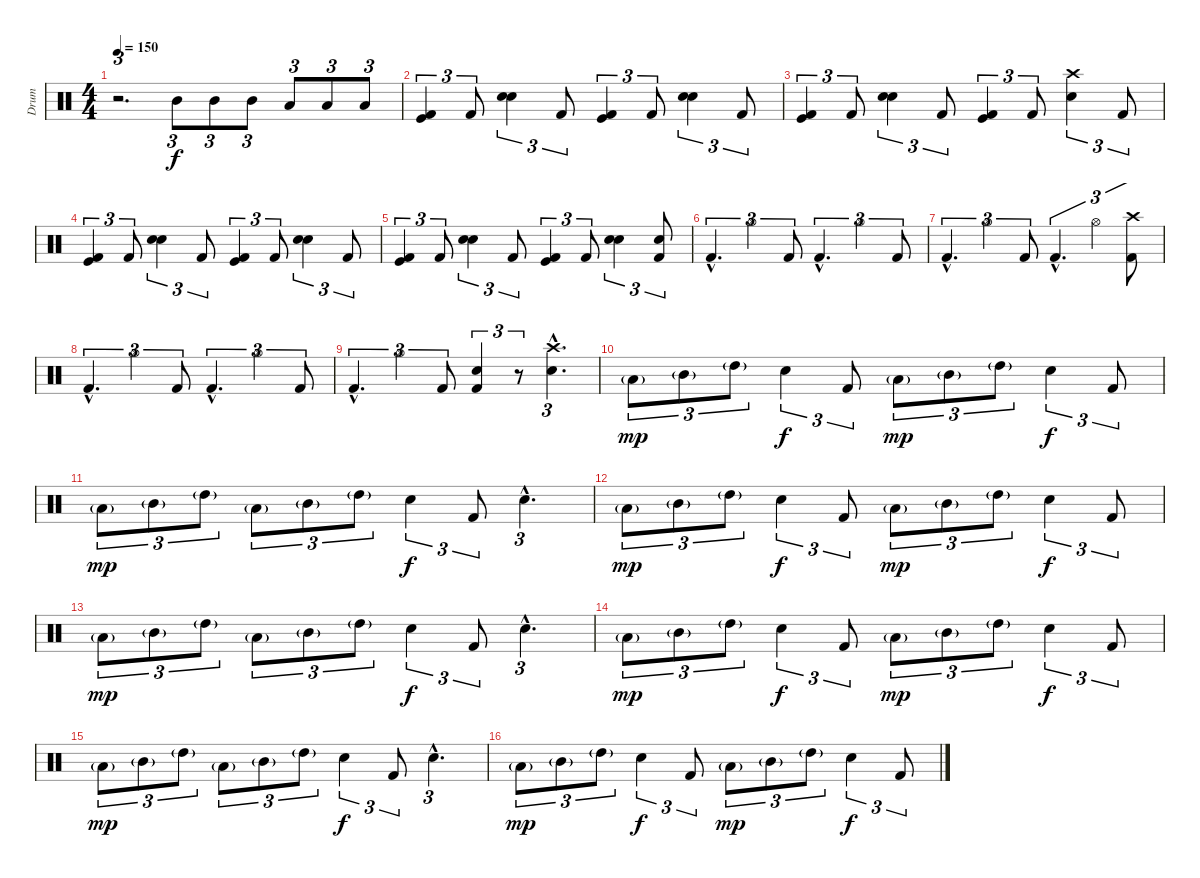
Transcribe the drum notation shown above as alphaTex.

\track ("Drum" "Drum") {instrument percussion}
\staff {score}
\articulation defaults
\ts (4 4)
\tempo 150
\clef neutral
\ks c
r.2{d tu (3 2) dy f} "Mid Tom (hit)".8{tu (3 2)} "Mid Tom (hit)".8{tu (3 2)} "Mid Tom (hit)".8{tu (3 2)} "Low Tom (hit)".8{tu (3 2)} "Low Tom (hit)".8{tu (3 2)} "Low Tom (hit)".8{tu (3 2)} |
("Kick (hit) 2" "Kick (hit)").4{tu (3 2)} "Kick (hit) 2".8{tu (3 2)} ("Electric Snare (hit)" "Snare (hit) 2").4{tu (3 2)} "Kick (hit) 2".8{tu (3 2)} ("Kick (hit) 2" "Kick (hit)").4{tu (3 2)} "Kick (hit) 2".8{tu (3 2)} ("Electric Snare (hit)" "Snare (hit) 2").4{tu (3 2)} "Kick (hit) 2".8{tu (3 2)} |
("Kick (hit) 2" "Kick (hit)").4{tu (3 2)} "Kick (hit) 2".8{tu (3 2)} ("Electric Snare (hit)" "Snare (hit) 2").4{tu (3 2)} "Kick (hit) 2".8{tu (3 2)} ("Kick (hit) 2" "Kick (hit)").4{tu (3 2)} "Kick (hit) 2".8{tu (3 2)} ("Electric Snare (hit)" "Crash high (hit)").4{tu (3 2)} "Kick (hit) 2".8{tu (3 2)} |
("Kick (hit) 2" "Kick (hit)").4{tu (3 2)} "Kick (hit) 2".8{tu (3 2)} ("Electric Snare (hit)" "Snare (hit) 2").4{tu (3 2)} "Kick (hit) 2".8{tu (3 2)} ("Kick (hit) 2" "Kick (hit)").4{tu (3 2)} "Kick (hit) 2".8{tu (3 2)} ("Electric Snare (hit)" "Snare (hit) 2").4{tu (3 2)} "Kick (hit) 2".8{tu (3 2)} |
("Kick (hit) 2" "Kick (hit)").4{tu (3 2)} "Kick (hit) 2".8{tu (3 2)} ("Electric Snare (hit)" "Snare (hit) 2").4{tu (3 2)} "Kick (hit) 2".8{tu (3 2)} ("Kick (hit) 2" "Kick (hit)").4{tu (3 2)} "Kick (hit) 2".8{tu (3 2)} ("Electric Snare (hit)" "Snare (hit) 2").4{tu (3 2)} ("Kick (hit) 2" "Electric Snare (hit)").8{tu (3 2)} |
"Kick (hit) 2"{hac}.4{d tu (3 2)} "Hi-Hat (open)".4{tu (3 2)} "Kick (hit) 2".8{tu (3 2)} "Kick (hit) 2"{hac}.4{d tu (3 2)} "Hi-Hat (open)".4{tu (3 2)} "Kick (hit) 2".8{tu (3 2)} |
"Kick (hit) 2"{hac}.4{d tu (3 2)} "Hi-Hat (open)".4{tu (3 2)} "Kick (hit) 2".8{tu (3 2)} "Kick (hit) 2"{hac}.4{d tu (3 2)} "Hi-Hat (open)".4{tu (3 2)} ("Kick (hit) 2" "Crash high (hit)").8{tu (3 2)} |
"Kick (hit) 2"{hac}.4{d tu (3 2)} "Hi-Hat (open)".4{tu (3 2)} "Kick (hit) 2".8{tu (3 2)} "Kick (hit) 2"{hac}.4{d tu (3 2)} "Hi-Hat (open)".4{tu (3 2)} "Kick (hit) 2".8{tu (3 2)} |
"Kick (hit) 2"{hac}.4{d tu (3 2)} "Hi-Hat (open)".4{tu (3 2)} "Kick (hit) 2".8{tu (3 2)} ("Kick (hit) 2" "Snare (hit) 2").4{tu (3 2)} r.8{tu (3 2)} ("Crash high (hit)"{hac} "Snare (hit) 2"{hac}).4{d tu (3 2)} |
"Low Tom (hit)"{g}.8{tu (3 2) dy mp} "Mid Tom (hit)"{g}.8{tu (3 2)} "High Tom (hit)"{g}.8{tu (3 2)} "Snare (hit) 2".4{tu (3 2) dy f} "Kick (hit) 2".8{tu (3 2)} "Low Tom (hit)"{g}.8{tu (3 2) dy mp} "Mid Tom (hit)"{g}.8{tu (3 2)} "High Tom (hit)"{g}.8{tu (3 2)} "Snare (hit) 2".4{tu (3 2) dy f} "Kick (hit) 2".8{tu (3 2)} |
"Low Tom (hit)"{g}.8{tu (3 2) dy mp} "Mid Tom (hit)"{g}.8{tu (3 2)} "High Tom (hit)"{g}.8{tu (3 2)} "Low Tom (hit)"{g}.8{tu (3 2)} "Mid Tom (hit)"{g}.8{tu (3 2)} "High Tom (hit)"{g}.8{tu (3 2)} "Snare (hit) 2".4{tu (3 2) dy f} "Kick (hit) 2".8{tu (3 2)} "Snare (hit) 2"{hac}.4{d tu (3 2)} |
"Low Tom (hit)"{g}.8{tu (3 2) dy mp} "Mid Tom (hit)"{g}.8{tu (3 2)} "High Tom (hit)"{g}.8{tu (3 2)} "Snare (hit) 2".4{tu (3 2) dy f} "Kick (hit) 2".8{tu (3 2)} "Low Tom (hit)"{g}.8{tu (3 2) dy mp} "Mid Tom (hit)"{g}.8{tu (3 2)} "High Tom (hit)"{g}.8{tu (3 2)} "Snare (hit) 2".4{tu (3 2) dy f} "Kick (hit) 2".8{tu (3 2)} |
"Low Tom (hit)"{g}.8{tu (3 2) dy mp} "Mid Tom (hit)"{g}.8{tu (3 2)} "High Tom (hit)"{g}.8{tu (3 2)} "Low Tom (hit)"{g}.8{tu (3 2)} "Mid Tom (hit)"{g}.8{tu (3 2)} "High Tom (hit)"{g}.8{tu (3 2)} "Snare (hit) 2".4{tu (3 2) dy f} "Kick (hit) 2".8{tu (3 2)} "Snare (hit) 2"{hac}.4{d tu (3 2)} |
"Low Tom (hit)"{g}.8{tu (3 2) dy mp} "Mid Tom (hit)"{g}.8{tu (3 2)} "High Tom (hit)"{g}.8{tu (3 2)} "Snare (hit) 2".4{tu (3 2) dy f} "Kick (hit) 2".8{tu (3 2)} "Low Tom (hit)"{g}.8{tu (3 2) dy mp} "Mid Tom (hit)"{g}.8{tu (3 2)} "High Tom (hit)"{g}.8{tu (3 2)} "Snare (hit) 2".4{tu (3 2) dy f} "Kick (hit) 2".8{tu (3 2)} |
"Low Tom (hit)"{g}.8{tu (3 2) dy mp} "Mid Tom (hit)"{g}.8{tu (3 2)} "High Tom (hit)"{g}.8{tu (3 2)} "Low Tom (hit)"{g}.8{tu (3 2)} "Mid Tom (hit)"{g}.8{tu (3 2)} "High Tom (hit)"{g}.8{tu (3 2)} "Snare (hit) 2".4{tu (3 2) dy f} "Kick (hit) 2".8{tu (3 2)} "Snare (hit) 2"{hac}.4{d tu (3 2)} |
"Low Tom (hit)"{g}.8{tu (3 2) dy mp} "Mid Tom (hit)"{g}.8{tu (3 2)} "High Tom (hit)"{g}.8{tu (3 2)} "Snare (hit) 2".4{tu (3 2) dy f} "Kick (hit) 2".8{tu (3 2)} "Low Tom (hit)"{g}.8{tu (3 2) dy mp} "Mid Tom (hit)"{g}.8{tu (3 2)} "High Tom (hit)"{g}.8{tu (3 2)} "Snare (hit) 2".4{tu (3 2) dy f} "Kick (hit) 2".8{tu (3 2)}
